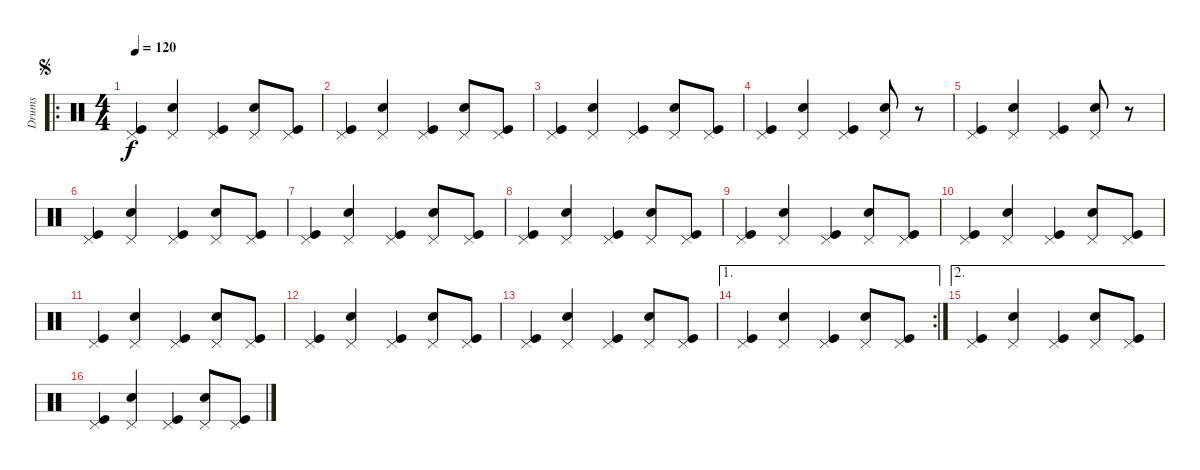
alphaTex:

\track ("Drums" "Drums") {instrument percussion}
\staff {score}
\articulation defaults
\ro
\ts (4 4)
\jump segno
\tempo 120
\clef neutral
\ks c
("Pedal Hi-Hat (hit)" "Kick (hit)").4{dy f} ("Pedal Hi-Hat (hit)" "Electric Snare (hit)").4 ("Pedal Hi-Hat (hit)" "Kick (hit)").4 ("Pedal Hi-Hat (hit)" "Electric Snare (hit)").8 ("Pedal Hi-Hat (hit)" "Kick (hit)").8 |
("Pedal Hi-Hat (hit)" "Kick (hit)").4 ("Pedal Hi-Hat (hit)" "Electric Snare (hit)").4 ("Pedal Hi-Hat (hit)" "Kick (hit)").4 ("Pedal Hi-Hat (hit)" "Electric Snare (hit)").8 ("Pedal Hi-Hat (hit)" "Kick (hit)").8 |
("Pedal Hi-Hat (hit)" "Kick (hit)").4 ("Pedal Hi-Hat (hit)" "Electric Snare (hit)").4 ("Pedal Hi-Hat (hit)" "Kick (hit)").4 ("Pedal Hi-Hat (hit)" "Electric Snare (hit)").8 ("Pedal Hi-Hat (hit)" "Kick (hit)").8 |
("Pedal Hi-Hat (hit)" "Kick (hit)").4 ("Pedal Hi-Hat (hit)" "Electric Snare (hit)").4 ("Pedal Hi-Hat (hit)" "Kick (hit)").4 ("Pedal Hi-Hat (hit)" "Electric Snare (hit)").8 r.8 |
("Pedal Hi-Hat (hit)" "Kick (hit)").4 ("Pedal Hi-Hat (hit)" "Electric Snare (hit)").4 ("Pedal Hi-Hat (hit)" "Kick (hit)").4 ("Pedal Hi-Hat (hit)" "Electric Snare (hit)").8 r.8 |
("Pedal Hi-Hat (hit)" "Kick (hit)").4 ("Pedal Hi-Hat (hit)" "Electric Snare (hit)").4 ("Pedal Hi-Hat (hit)" "Kick (hit)").4 ("Electric Snare (hit)" "Pedal Hi-Hat (hit)").8 ("Kick (hit)" "Pedal Hi-Hat (hit)").8 |
("Pedal Hi-Hat (hit)" "Kick (hit)").4 ("Pedal Hi-Hat (hit)" "Electric Snare (hit)").4 ("Pedal Hi-Hat (hit)" "Kick (hit)").4 ("Electric Snare (hit)" "Pedal Hi-Hat (hit)").8 ("Kick (hit)" "Pedal Hi-Hat (hit)").8 |
("Pedal Hi-Hat (hit)" "Kick (hit)").4 ("Pedal Hi-Hat (hit)" "Electric Snare (hit)").4 ("Pedal Hi-Hat (hit)" "Kick (hit)").4 ("Pedal Hi-Hat (hit)" "Electric Snare (hit)").8 ("Pedal Hi-Hat (hit)" "Kick (hit)").8 |
("Pedal Hi-Hat (hit)" "Kick (hit)").4 ("Pedal Hi-Hat (hit)" "Electric Snare (hit)").4 ("Pedal Hi-Hat (hit)" "Kick (hit)").4 ("Pedal Hi-Hat (hit)" "Electric Snare (hit)").8 ("Pedal Hi-Hat (hit)" "Kick (hit)").8 |
("Pedal Hi-Hat (hit)" "Kick (hit)").4 ("Pedal Hi-Hat (hit)" "Electric Snare (hit)").4 ("Pedal Hi-Hat (hit)" "Kick (hit)").4 ("Pedal Hi-Hat (hit)" "Electric Snare (hit)").8 ("Pedal Hi-Hat (hit)" "Kick (hit)").8 |
("Pedal Hi-Hat (hit)" "Kick (hit)").4 ("Pedal Hi-Hat (hit)" "Electric Snare (hit)").4 ("Pedal Hi-Hat (hit)" "Kick (hit)").4 ("Pedal Hi-Hat (hit)" "Electric Snare (hit)").8 ("Pedal Hi-Hat (hit)" "Kick (hit)").8 |
("Pedal Hi-Hat (hit)" "Kick (hit)").4 ("Pedal Hi-Hat (hit)" "Electric Snare (hit)").4 ("Pedal Hi-Hat (hit)" "Kick (hit)").4 ("Pedal Hi-Hat (hit)" "Electric Snare (hit)").8 ("Pedal Hi-Hat (hit)" "Kick (hit)").8 |
("Pedal Hi-Hat (hit)" "Kick (hit)").4 ("Pedal Hi-Hat (hit)" "Electric Snare (hit)").4 ("Pedal Hi-Hat (hit)" "Kick (hit)").4 ("Pedal Hi-Hat (hit)" "Electric Snare (hit)").8 ("Pedal Hi-Hat (hit)" "Kick (hit)").8 |
\ae 1
\rc 2
("Pedal Hi-Hat (hit)" "Kick (hit)").4 ("Pedal Hi-Hat (hit)" "Electric Snare (hit)").4 ("Pedal Hi-Hat (hit)" "Kick (hit)").4 ("Pedal Hi-Hat (hit)" "Electric Snare (hit)").8 ("Pedal Hi-Hat (hit)" "Kick (hit)").8 |
\ae 2
("Pedal Hi-Hat (hit)" "Kick (hit)").4 ("Pedal Hi-Hat (hit)" "Electric Snare (hit)").4 ("Pedal Hi-Hat (hit)" "Kick (hit)").4 ("Pedal Hi-Hat (hit)" "Electric Snare (hit)").8 ("Pedal Hi-Hat (hit)" "Kick (hit)").8 |
("Pedal Hi-Hat (hit)" "Kick (hit)").4 ("Pedal Hi-Hat (hit)" "Electric Snare (hit)").4 ("Pedal Hi-Hat (hit)" "Kick (hit)").4 ("Pedal Hi-Hat (hit)" "Electric Snare (hit)").8 ("Pedal Hi-Hat (hit)" "Kick (hit)").8
